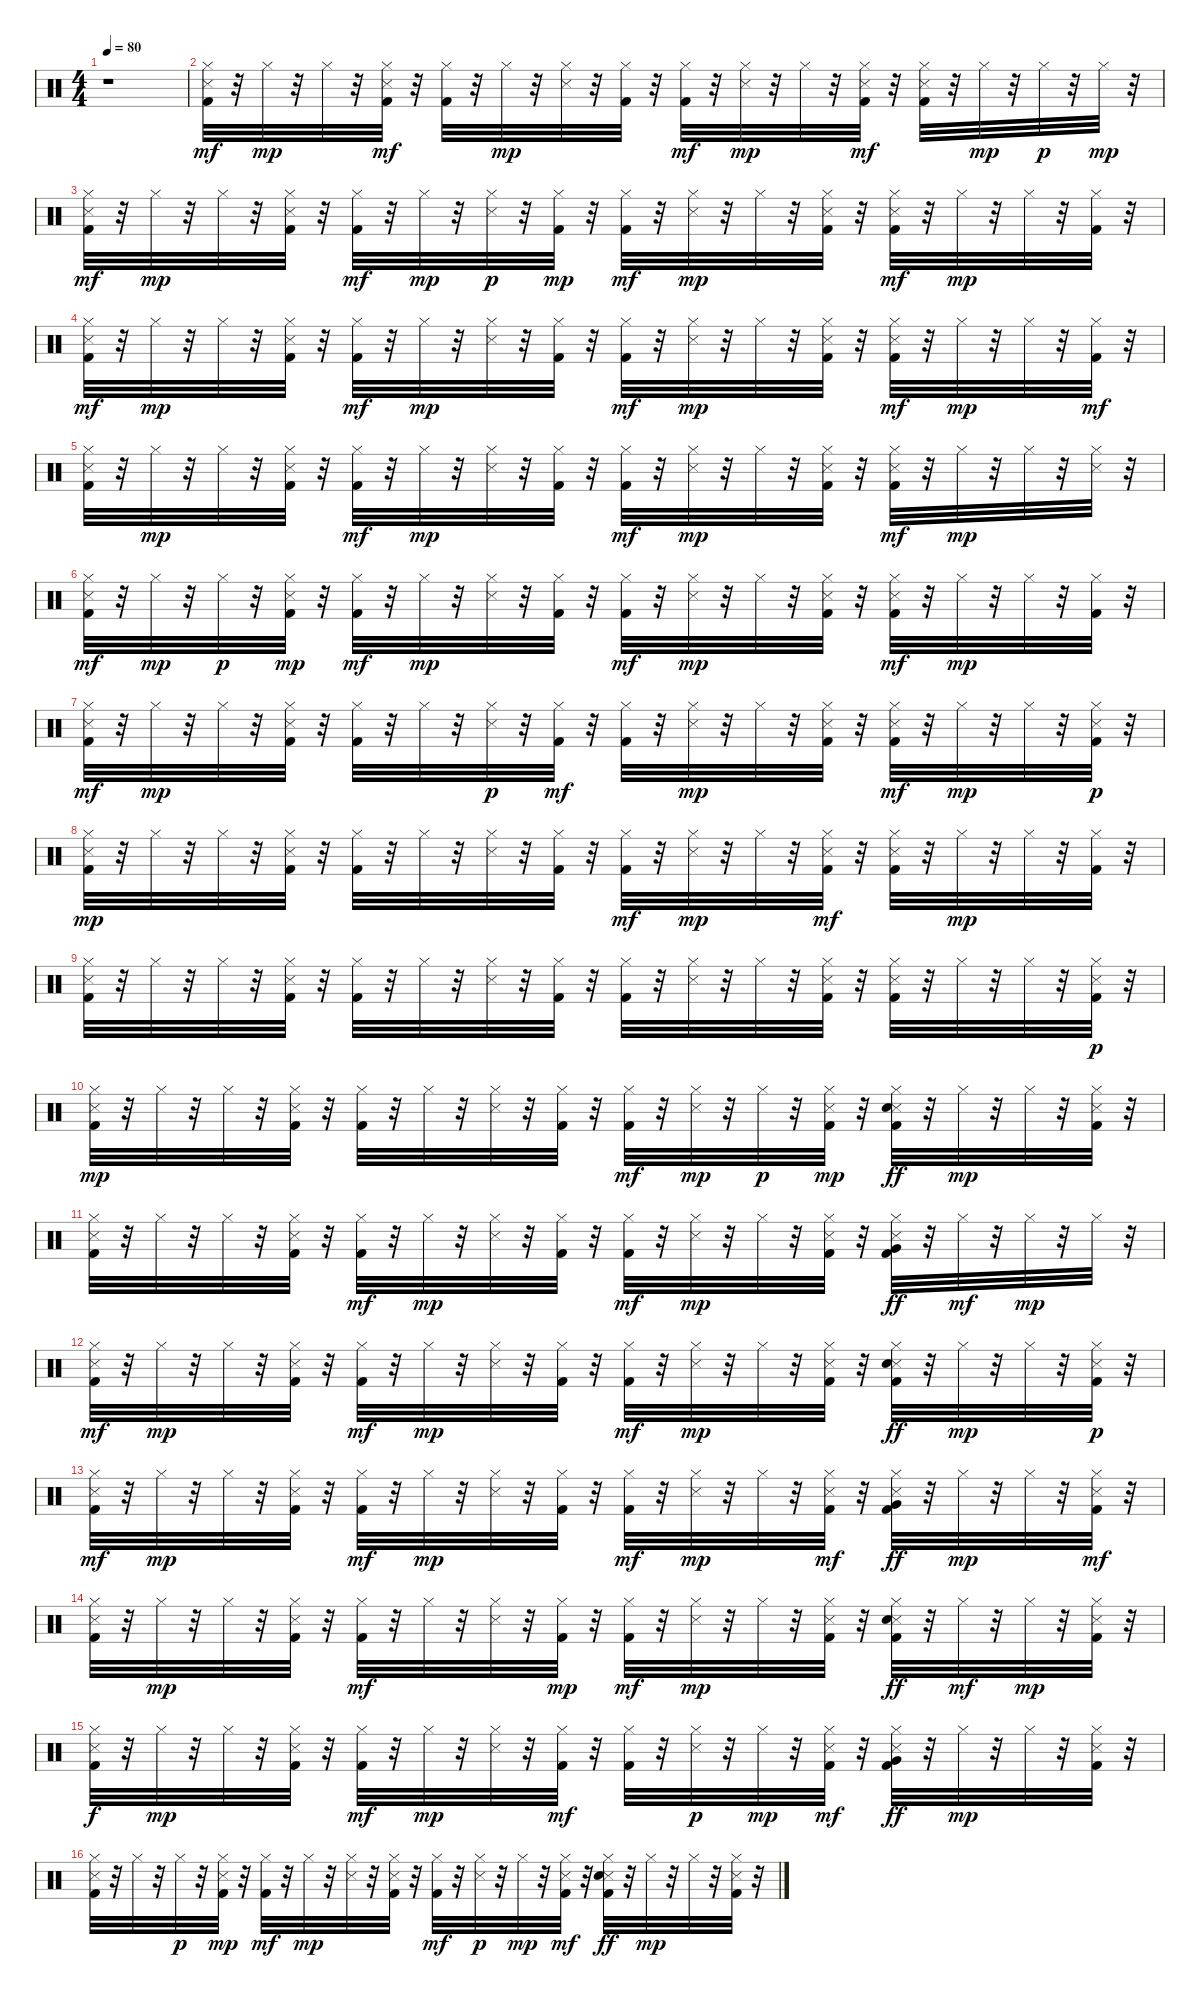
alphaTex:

\track "" {instrument percussion}
\staff {score}
\articulation defaults
\ts (4 4)
\tempo 80
\clef neutral
\ks c
r.1{dy mf} |
("Kick (hit) 2" "Snare (side stick) 3" "Hi-Hat (closed)").32{balance 8} r.32 "Hi-Hat (closed)".32{dy mp} r.32 "Hi-Hat (closed)".32 r.32 ("Kick (hit) 2" "Snare (side stick) 3" "Hi-Hat (closed)").32{dy mf} r.32 ("Kick (hit) 2" "Hi-Hat (closed)").32 r.32 "Hi-Hat (closed)".32{dy mp} r.32 ("Snare (side stick) 3" "Hi-Hat (closed)").32 r.32 ("Kick (hit) 2" "Hi-Hat (closed)").32 r.32 ("Kick (hit) 2" "Hi-Hat (closed)").32{dy mf} r.32 ("Snare (side stick) 3" "Hi-Hat (closed)").32{dy mp} r.32 "Hi-Hat (closed)".32 r.32 ("Kick (hit) 2" "Snare (side stick) 3" "Hi-Hat (closed)").32{dy mf} r.32 ("Kick (hit) 2" "Snare (side stick) 3" "Hi-Hat (closed)").32 r.32 "Hi-Hat (closed)".32{dy mp} r.32 "Hi-Hat (closed)".32{dy p} r.32 "Hi-Hat (closed)".32{dy mp} r.32 |
("Kick (hit) 2" "Snare (side stick) 3" "Hi-Hat (closed)").32{dy mf} r.32 "Hi-Hat (closed)".32{dy mp} r.32 "Hi-Hat (closed)".32 r.32 ("Kick (hit) 2" "Snare (side stick) 3" "Hi-Hat (closed)").32 r.32 ("Kick (hit) 2" "Hi-Hat (closed)").32{dy mf} r.32 "Hi-Hat (closed)".32{dy mp} r.32 ("Snare (side stick) 3" "Hi-Hat (closed)").32{dy p} r.32 ("Kick (hit) 2" "Hi-Hat (closed)").32{dy mp} r.32 ("Kick (hit) 2" "Hi-Hat (closed)").32{dy mf} r.32 ("Snare (side stick) 3" "Hi-Hat (closed)").32{dy mp} r.32 "Hi-Hat (closed)".32 r.32 ("Kick (hit) 2" "Snare (side stick) 3" "Hi-Hat (closed)").32 r.32 ("Kick (hit) 2" "Snare (side stick) 3" "Hi-Hat (closed)").32{dy mf} r.32 "Hi-Hat (closed)".32{dy mp} r.32 "Hi-Hat (closed)".32 r.32 ("Kick (hit) 2" "Hi-Hat (closed)").32 r.32 |
("Kick (hit) 2" "Snare (side stick) 3" "Hi-Hat (closed)").32{dy mf} r.32 "Hi-Hat (closed)".32{dy mp} r.32 "Hi-Hat (closed)".32 r.32 ("Kick (hit) 2" "Snare (side stick) 3" "Hi-Hat (closed)").32 r.32 ("Kick (hit) 2" "Hi-Hat (closed)").32{dy mf} r.32 "Hi-Hat (closed)".32{dy mp} r.32 ("Snare (side stick) 3" "Hi-Hat (closed)").32 r.32 ("Kick (hit) 2" "Hi-Hat (closed)").32 r.32 ("Kick (hit) 2" "Hi-Hat (closed)").32{dy mf} r.32 ("Snare (side stick) 3" "Hi-Hat (closed)").32{dy mp} r.32 "Hi-Hat (closed)".32 r.32 ("Kick (hit) 2" "Snare (side stick) 3" "Hi-Hat (closed)").32 r.32 ("Kick (hit) 2" "Snare (side stick) 3" "Hi-Hat (closed)").32{dy mf} r.32 "Hi-Hat (closed)".32{dy mp} r.32 "Hi-Hat (closed)".32 r.32 ("Kick (hit) 2" "Hi-Hat (closed)").32{dy mf} r.32 |
("Kick (hit) 2" "Snare (side stick) 3" "Hi-Hat (closed)").32 r.32 "Hi-Hat (closed)".32{dy mp} r.32 "Hi-Hat (closed)".32 r.32 ("Kick (hit) 2" "Snare (side stick) 3" "Hi-Hat (closed)").32 r.32 ("Kick (hit) 2" "Hi-Hat (closed)").32{dy mf} r.32 "Hi-Hat (closed)".32{dy mp} r.32 ("Snare (side stick) 3" "Hi-Hat (closed)").32 r.32 ("Kick (hit) 2" "Hi-Hat (closed)").32 r.32 ("Kick (hit) 2" "Hi-Hat (closed)").32{dy mf} r.32 ("Snare (side stick) 3" "Hi-Hat (closed)").32{dy mp} r.32 "Hi-Hat (closed)".32 r.32 ("Kick (hit) 2" "Snare (side stick) 3" "Hi-Hat (closed)").32 r.32 ("Kick (hit) 2" "Snare (side stick) 3" "Hi-Hat (closed)").32{dy mf} r.32 "Hi-Hat (closed)".32{dy mp} r.32 "Hi-Hat (closed)".32 r.32 ("Snare (side stick) 3" "Hi-Hat (closed)").32 r.32 |
("Kick (hit) 2" "Snare (side stick) 3" "Hi-Hat (closed)").32{dy mf} r.32 "Hi-Hat (closed)".32{dy mp} r.32 "Hi-Hat (closed)".32{dy p} r.32 ("Kick (hit) 2" "Snare (side stick) 3" "Hi-Hat (closed)").32{dy mp} r.32 ("Kick (hit) 2" "Hi-Hat (closed)").32{dy mf} r.32 "Hi-Hat (closed)".32{dy mp} r.32 ("Snare (side stick) 3" "Hi-Hat (closed)").32 r.32 ("Kick (hit) 2" "Hi-Hat (closed)").32 r.32 ("Kick (hit) 2" "Hi-Hat (closed)").32{dy mf} r.32 ("Snare (side stick) 3" "Hi-Hat (closed)").32{dy mp} r.32 "Hi-Hat (closed)".32 r.32 ("Kick (hit) 2" "Snare (side stick) 3" "Hi-Hat (closed)").32 r.32 ("Kick (hit) 2" "Snare (side stick) 3" "Hi-Hat (closed)").32{dy mf} r.32 "Hi-Hat (closed)".32{dy mp} r.32 "Hi-Hat (closed)".32 r.32 ("Kick (hit) 2" "Hi-Hat (closed)").32 r.32 |
("Kick (hit) 2" "Snare (side stick) 3" "Hi-Hat (closed)").32{dy mf} r.32 "Hi-Hat (closed)".32{dy mp} r.32 "Hi-Hat (closed)".32 r.32 ("Kick (hit) 2" "Snare (side stick) 3" "Hi-Hat (closed)").32 r.32 ("Kick (hit) 2" "Hi-Hat (closed)").32 r.32 "Hi-Hat (closed)".32 r.32 ("Snare (side stick) 3" "Hi-Hat (closed)").32{dy p} r.32 ("Kick (hit) 2" "Hi-Hat (closed)").32{dy mf} r.32 ("Kick (hit) 2" "Hi-Hat (closed)").32 r.32 ("Snare (side stick) 3" "Hi-Hat (closed)").32{dy mp} r.32 "Hi-Hat (closed)".32 r.32 ("Kick (hit) 2" "Snare (side stick) 3" "Hi-Hat (closed)").32 r.32 ("Kick (hit) 2" "Snare (side stick) 3" "Hi-Hat (closed)").32{dy mf} r.32 "Hi-Hat (closed)".32{dy mp} r.32 "Hi-Hat (closed)".32 r.32 ("Kick (hit) 2" "Snare (side stick) 3" "Hi-Hat (closed)").32{dy p} r.32 |
("Kick (hit) 2" "Snare (side stick) 3" "Hi-Hat (closed)").32{dy mp} r.32 "Hi-Hat (closed)".32 r.32 "Hi-Hat (closed)".32 r.32 ("Kick (hit) 2" "Snare (side stick) 3" "Hi-Hat (closed)").32 r.32 ("Kick (hit) 2" "Hi-Hat (closed)").32 r.32 "Hi-Hat (closed)".32 r.32 ("Snare (side stick) 3" "Hi-Hat (closed)").32 r.32 ("Kick (hit) 2" "Hi-Hat (closed)").32 r.32 ("Kick (hit) 2" "Hi-Hat (closed)").32{dy mf} r.32 ("Snare (side stick) 3" "Hi-Hat (closed)").32{dy mp} r.32 "Hi-Hat (closed)".32 r.32 ("Kick (hit) 2" "Snare (side stick) 3" "Hi-Hat (closed)").32{dy mf} r.32 ("Kick (hit) 2" "Snare (side stick) 3" "Hi-Hat (closed)").32 r.32 "Hi-Hat (closed)".32{dy mp} r.32 "Hi-Hat (closed)".32 r.32 ("Kick (hit) 2" "Hi-Hat (closed)").32 r.32 |
("Kick (hit) 2" "Snare (side stick) 3" "Hi-Hat (closed)").32 r.32 "Hi-Hat (closed)".32 r.32 "Hi-Hat (closed)".32 r.32 ("Kick (hit) 2" "Snare (side stick) 3" "Hi-Hat (closed)").32 r.32 ("Kick (hit) 2" "Hi-Hat (closed)").32 r.32 "Hi-Hat (closed)".32 r.32 ("Snare (side stick) 3" "Hi-Hat (closed)").32 r.32 ("Kick (hit) 2" "Hi-Hat (closed)").32 r.32 ("Kick (hit) 2" "Hi-Hat (closed)").32 r.32 ("Snare (side stick) 3" "Hi-Hat (closed)").32 r.32 "Hi-Hat (closed)".32 r.32 ("Kick (hit) 2" "Snare (side stick) 3" "Hi-Hat (closed)").32 r.32 ("Kick (hit) 2" "Snare (side stick) 3" "Hi-Hat (closed)").32 r.32 "Hi-Hat (closed)".32 r.32 "Hi-Hat (closed)".32 r.32 ("Kick (hit) 2" "Snare (side stick) 3" "Hi-Hat (closed)").32{dy p} r.32 |
("Kick (hit) 2" "Snare (side stick) 3" "Hi-Hat (closed)").32{dy mp} r.32 "Hi-Hat (closed)".32 r.32 "Hi-Hat (closed)".32 r.32 ("Kick (hit) 2" "Snare (side stick) 3" "Hi-Hat (closed)").32 r.32 ("Kick (hit) 2" "Hi-Hat (closed)").32 r.32 "Hi-Hat (closed)".32 r.32 ("Snare (side stick) 3" "Hi-Hat (closed)").32 r.32 ("Kick (hit) 2" "Hi-Hat (closed)").32 r.32 ("Kick (hit) 2" "Hi-Hat (closed)").32{dy mf} r.32 ("Snare (side stick) 3" "Hi-Hat (closed)").32{dy mp} r.32 "Hi-Hat (closed)".32{dy p} r.32 ("Kick (hit) 2" "Snare (side stick) 3" "Hi-Hat (closed)").32{dy mp} r.32 ("Kick (hit) 2" "Snare (side stick) 3" "Hi-Hat (closed)" "Snare (hit) 2").32{dy ff} r.32 "Hi-Hat (closed)".32{dy mp} r.32 "Hi-Hat (closed)".32 r.32 ("Kick (hit) 2" "Snare (side stick) 3" "Hi-Hat (closed)").32 r.32 |
("Kick (hit) 2" "Snare (side stick) 3" "Hi-Hat (closed)").32 r.32 "Hi-Hat (closed)".32 r.32 "Hi-Hat (closed)".32 r.32 ("Kick (hit) 2" "Snare (side stick) 3" "Hi-Hat (closed)").32 r.32 ("Kick (hit) 2" "Hi-Hat (closed)").32{dy mf} r.32 "Hi-Hat (closed)".32{dy mp} r.32 ("Snare (side stick) 3" "Hi-Hat (closed)").32 r.32 ("Kick (hit) 2" "Hi-Hat (closed)").32 r.32 ("Kick (hit) 2" "Hi-Hat (closed)").32{dy mf} r.32 ("Snare (side stick) 3" "Hi-Hat (closed)").32{dy mp} r.32 "Hi-Hat (closed)".32 r.32 ("Kick (hit) 2" "Snare (side stick) 3" "Hi-Hat (closed)").32 r.32 ("Kick (hit) 2" "Snare (side stick) 3" "Hi-Hat (closed)" "Very Low Tom (hit)").32{dy ff} r.32 "Hi-Hat (closed)".32{dy mf} r.32 "Hi-Hat (closed)".32{dy mp} r.32 "Hi-Hat (closed)".32 r.32 |
("Kick (hit) 2" "Snare (side stick) 3" "Hi-Hat (closed)").32{dy mf} r.32 "Hi-Hat (closed)".32{dy mp} r.32 "Hi-Hat (closed)".32 r.32 ("Kick (hit) 2" "Snare (side stick) 3" "Hi-Hat (closed)").32 r.32 ("Kick (hit) 2" "Hi-Hat (closed)").32{dy mf} r.32 "Hi-Hat (closed)".32{dy mp} r.32 ("Snare (side stick) 3" "Hi-Hat (closed)").32 r.32 ("Kick (hit) 2" "Hi-Hat (closed)").32 r.32 ("Kick (hit) 2" "Hi-Hat (closed)").32{dy mf} r.32 ("Snare (side stick) 3" "Hi-Hat (closed)").32{dy mp} r.32 "Hi-Hat (closed)".32 r.32 ("Kick (hit) 2" "Snare (side stick) 3" "Hi-Hat (closed)").32 r.32 ("Kick (hit) 2" "Snare (side stick) 3" "Hi-Hat (closed)" "Snare (hit) 2").32{dy ff} r.32 "Hi-Hat (closed)".32{dy mp} r.32 "Hi-Hat (closed)".32 r.32 ("Kick (hit) 2" "Snare (side stick) 3" "Hi-Hat (closed)").32{dy p} r.32 |
("Kick (hit) 2" "Snare (side stick) 3" "Hi-Hat (closed)").32{dy mf} r.32 "Hi-Hat (closed)".32{dy mp} r.32 "Hi-Hat (closed)".32 r.32 ("Kick (hit) 2" "Snare (side stick) 3" "Hi-Hat (closed)").32 r.32 ("Kick (hit) 2" "Hi-Hat (closed)").32{dy mf} r.32 "Hi-Hat (closed)".32{dy mp} r.32 ("Snare (side stick) 3" "Hi-Hat (closed)").32 r.32 ("Kick (hit) 2" "Hi-Hat (closed)").32 r.32 ("Kick (hit) 2" "Hi-Hat (closed)").32{dy mf} r.32 ("Snare (side stick) 3" "Hi-Hat (closed)").32{dy mp} r.32 "Hi-Hat (closed)".32 r.32 ("Kick (hit) 2" "Snare (side stick) 3" "Hi-Hat (closed)").32{dy mf} r.32 ("Kick (hit) 2" "Snare (side stick) 3" "Hi-Hat (closed)" "Very Low Tom (hit)").32{dy ff} r.32 "Hi-Hat (closed)".32{dy mp} r.32 "Hi-Hat (closed)".32 r.32 ("Kick (hit) 2" "Snare (side stick) 3" "Hi-Hat (closed)").32{dy mf} r.32 |
("Kick (hit) 2" "Snare (side stick) 3" "Hi-Hat (closed)").32 r.32 "Hi-Hat (closed)".32{dy mp} r.32 "Hi-Hat (closed)".32 r.32 ("Kick (hit) 2" "Snare (side stick) 3" "Hi-Hat (closed)").32 r.32 ("Kick (hit) 2" "Hi-Hat (closed)").32{dy mf} r.32 "Hi-Hat (closed)".32 r.32 ("Snare (side stick) 3" "Hi-Hat (closed)").32 r.32 ("Kick (hit) 2" "Hi-Hat (closed)").32{dy mp} r.32 ("Kick (hit) 2" "Hi-Hat (closed)").32{dy mf} r.32 ("Snare (side stick) 3" "Hi-Hat (closed)").32{dy mp} r.32 "Hi-Hat (closed)".32 r.32 ("Kick (hit) 2" "Snare (side stick) 3" "Hi-Hat (closed)").32 r.32 ("Kick (hit) 2" "Snare (side stick) 3" "Hi-Hat (closed)" "Snare (hit) 2").32{dy ff} r.32 "Hi-Hat (closed)".32{dy mf} r.32 "Hi-Hat (closed)".32{dy mp} r.32 ("Kick (hit) 2" "Snare (side stick) 3" "Hi-Hat (closed)").32 r.32 |
("Kick (hit) 2" "Snare (side stick) 3" "Hi-Hat (closed)").32{dy f} r.32 "Hi-Hat (closed)".32{dy mp} r.32 "Hi-Hat (closed)".32 r.32 ("Kick (hit) 2" "Snare (side stick) 3" "Hi-Hat (closed)").32 r.32 ("Kick (hit) 2" "Hi-Hat (closed)").32{dy mf} r.32 "Hi-Hat (closed)".32{dy mp} r.32 ("Snare (side stick) 3" "Hi-Hat (closed)").32 r.32 ("Kick (hit) 2" "Hi-Hat (closed)").32{dy mf} r.32 ("Kick (hit) 2" "Hi-Hat (closed)").32 r.32 ("Snare (side stick) 3" "Hi-Hat (closed)").32{dy p} r.32 "Hi-Hat (closed)".32{dy mp} r.32 ("Kick (hit) 2" "Snare (side stick) 3" "Hi-Hat (closed)").32{dy mf} r.32 ("Kick (hit) 2" "Snare (side stick) 3" "Hi-Hat (closed)" "Very Low Tom (hit)").32{dy ff} r.32 "Hi-Hat (closed)".32{dy mp} r.32 "Hi-Hat (closed)".32 r.32 ("Kick (hit) 2" "Snare (side stick) 3" "Hi-Hat (closed)").32 r.32 |
("Kick (hit) 2" "Snare (side stick) 3" "Hi-Hat (closed)").32 r.32 "Hi-Hat (closed)".32 r.32 "Hi-Hat (closed)".32{dy p} r.32 ("Kick (hit) 2" "Snare (side stick) 3" "Hi-Hat (closed)").32{dy mp} r.32 ("Kick (hit) 2" "Hi-Hat (closed)").32{dy mf} r.32 "Hi-Hat (closed)".32{dy mp} r.32 ("Snare (side stick) 3" "Hi-Hat (closed)").32 r.32 ("Kick (hit) 2" "Snare (side stick) 3" "Hi-Hat (closed)").32 r.32 ("Kick (hit) 2" "Hi-Hat (closed)").32{dy mf} r.32 ("Snare (side stick) 3" "Hi-Hat (closed)").32{dy p} r.32 "Hi-Hat (closed)".32{dy mp} r.32 ("Kick (hit) 2" "Snare (side stick) 3" "Hi-Hat (closed)").32{dy mf} r.32 ("Kick (hit) 2" "Snare (side stick) 3" "Hi-Hat (closed)" "Snare (hit) 2").32{dy ff} r.32 "Hi-Hat (closed)".32{dy mp} r.32 "Hi-Hat (closed)".32 r.32 ("Kick (hit) 2" "Snare (side stick) 3" "Hi-Hat (closed)").32 r.32
